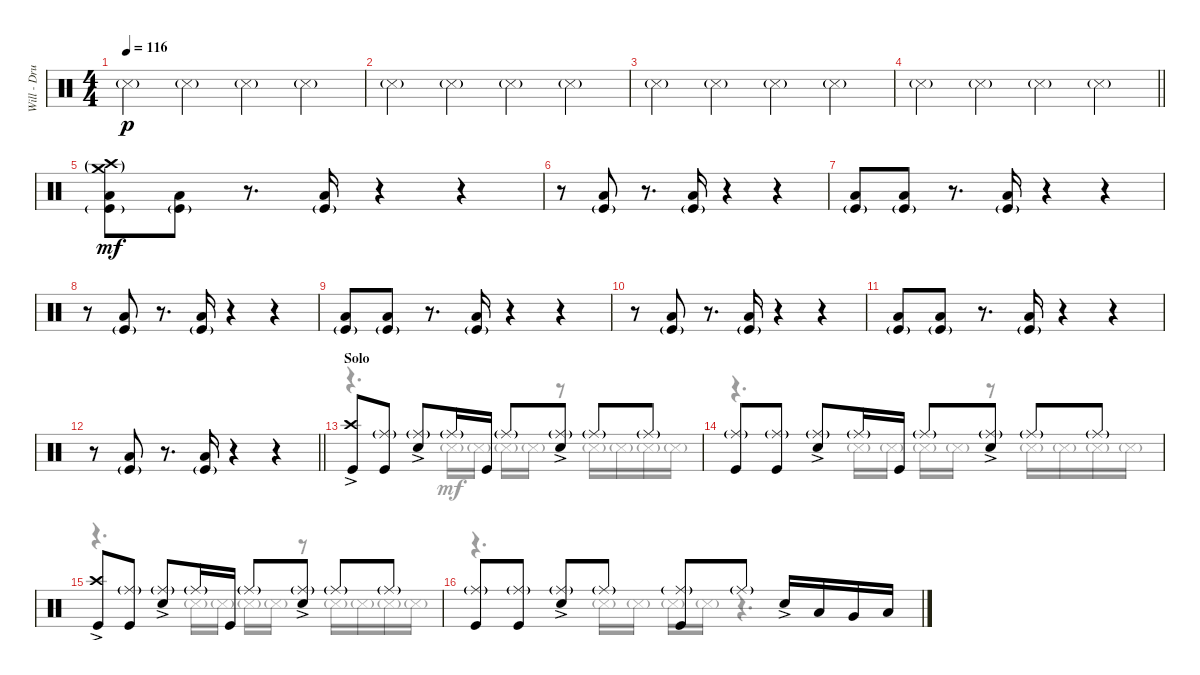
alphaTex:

\track ("Will - Drumkit" "Will - Dru") {instrument percussion}
\staff {score}
\articulation defaults
\voice
\ts (4 4)
\tempo 116
\clef neutral
\ks c "Snare (side stick) 3"{g}.4{dy p} "Snare (side stick) 3"{g}.4 "Snare (side stick) 3"{g}.4 "Snare (side stick) 3"{g}.4
|
"Snare (side stick) 3"{g}.4 "Snare (side stick) 3"{g}.4 "Snare (side stick) 3"{g}.4 "Snare (side stick) 3"{g}.4 |
"Snare (side stick) 3"{g}.4 "Snare (side stick) 3"{g}.4 "Snare (side stick) 3"{g}.4 "Snare (side stick) 3"{g}.4 |
\barLineRight lightlight "Snare (side stick) 3"{g}.4 "Snare (side stick) 3"{g}.4 "Snare (side stick) 3"{g}.4 "Snare (side stick) 3"{g}.4
|
("Kick (hit)"{g} "Low Floor Tom (hit)" "Crash high (hit)"{g} "Crash medium (hit)"{g}).8{dy mf} ("Kick (hit)"{g} "Low Floor Tom (hit)").8 r.8{d} ("Kick (hit)"{g} "Low Floor Tom (hit)").16 r.4 r.4 |
r.8 ("Kick (hit)"{g} "Low Floor Tom (hit)").8 r.8{d} ("Kick (hit)"{g} "Low Floor Tom (hit)").16 r.4 r.4 |
("Kick (hit)"{g} "Low Floor Tom (hit)").8 ("Kick (hit)"{g} "Low Floor Tom (hit)").8 r.8{d} ("Kick (hit)"{g} "Low Floor Tom (hit)").16 r.4 r.4 |
r.8 ("Kick (hit)"{g} "Low Floor Tom (hit)").8 r.8{d} ("Kick (hit)"{g} "Low Floor Tom (hit)").16 r.4 r.4 |
("Kick (hit)"{g} "Low Floor Tom (hit)").8 ("Kick (hit)"{g} "Low Floor Tom (hit)").8 r.8{d} ("Kick (hit)"{g} "Low Floor Tom (hit)").16 r.4 r.4 |
r.8 ("Kick (hit)"{g} "Low Floor Tom (hit)").8 r.8{d} ("Kick (hit)"{g} "Low Floor Tom (hit)").16 r.4 r.4 |
("Kick (hit)"{g} "Low Floor Tom (hit)").8 ("Kick (hit)"{g} "Low Floor Tom (hit)").8 r.8{d} ("Kick (hit)"{g} "Low Floor Tom (hit)").16 r.4 r.4 |
\barLineRight lightlight
r.8 ("Kick (hit)"{g} "Low Floor Tom (hit)").8 r.8{d} ("Kick (hit)"{g} "Low Floor Tom (hit)").16 r.4 r.4 |
\section ("" "Solo")
("Kick (hit)" "Crash high (hit)"{ac}).8 ("Kick (hit)" "Ride (middle)"{g}).8 ("Snare (hit) 2"{ac} "Ride (middle)"{g}).8 "Ride (middle)"{g}.16 "Kick (hit)".16 "Ride (middle)"{g}.8 ("Ride (middle)"{g} "Snare (hit) 2"{ac}).8 "Ride (middle)"{g}.8 "Ride (middle)"{g}.8 |
("Kick (hit)" "Ride (middle)"{g}).8 ("Kick (hit)" "Ride (middle)"{g}).8 ("Snare (hit) 2"{ac} "Ride (middle)"{g}).8 "Ride (middle)"{g}.16 "Kick (hit)".16 "Ride (middle)"{g}.8 ("Ride (middle)"{g} "Snare (hit) 2"{ac}).8 "Ride (middle)"{g}.8 "Ride (middle)"{g}.8 |
("Kick (hit)" "Crash high (hit)"{ac}).8 ("Kick (hit)" "Ride (middle)"{g}).8 ("Snare (hit) 2"{ac} "Ride (middle)"{g}).8 "Ride (middle)"{g}.16 "Kick (hit)".16 "Ride (middle)"{g}.8 ("Ride (middle)"{g} "Snare (hit) 2"{ac}).8 "Ride (middle)"{g}.8 "Ride (middle)"{g}.8 |
("Kick (hit)" "Ride (middle)"{g}).8 ("Kick (hit)" "Ride (middle)"{g}).8 ("Snare (hit) 2"{ac} "Ride (middle)"{g}).8 "Ride (middle)"{g}.8 ("Kick (hit)" "Ride (middle)"{g}).8 "Ride (middle)"{g}.8 "Snare (hit) 2"{ac}.16 "Low Tom (hit)".16 "Very Low Tom (hit)".16 "Low Floor Tom (hit)".16
\voice
\clef neutral
\ottava regular
\simile none
\ks c
|
|
|
\barLineRight lightlight
|
|
|
|
|
|
|
|
\barLineRight lightlight
|
r.4{d} "Snare (side stick) 3"{g}.16 "Snare (side stick) 3"{g}.16 "Snare (side stick) 3"{g}.16 "Snare (side stick) 3"{g}.16 r.8 "Snare (side stick) 3"{g}.16 "Snare (side stick) 3"{g}.16 "Snare (side stick) 3"{g}.16 "Snare (side stick) 3"{g}.16 |
r.4{d} "Snare (side stick) 3"{g}.16 "Snare (side stick) 3"{g}.16 "Snare (side stick) 3"{g}.16 "Snare (side stick) 3"{g}.16 r.8 "Snare (side stick) 3"{g}.16 "Snare (side stick) 3"{g}.16 "Snare (side stick) 3"{g}.16 "Snare (side stick) 3"{g}.16 |
r.4{d} "Snare (side stick) 3"{g}.16 "Snare (side stick) 3"{g}.16 "Snare (side stick) 3"{g}.16 "Snare (side stick) 3"{g}.16 r.8 "Snare (side stick) 3"{g}.16 "Snare (side stick) 3"{g}.16 "Snare (side stick) 3"{g}.16 "Snare (side stick) 3"{g}.16 |
r.4{d} "Snare (side stick) 3"{g}.16 "Snare (side stick) 3"{g}.16 "Snare (side stick) 3"{g}.16 "Snare (side stick) 3"{g}.16 r.4{d}
